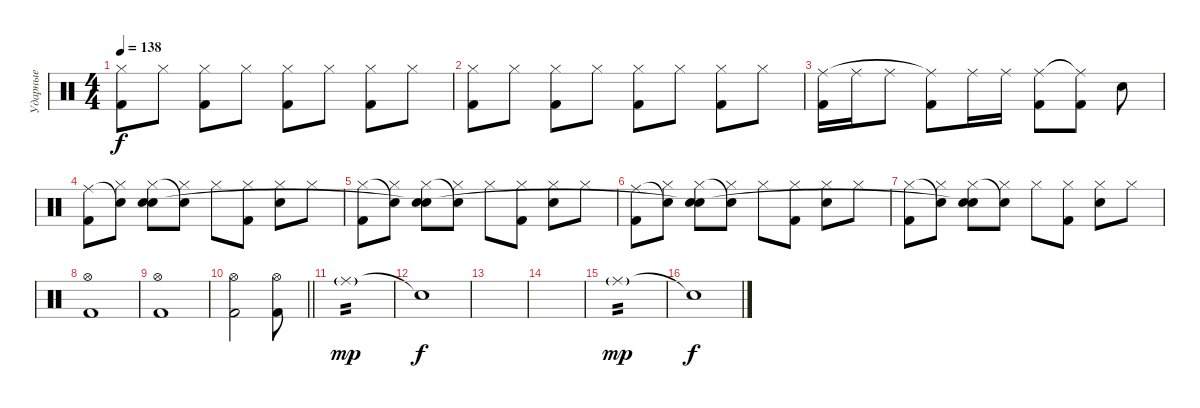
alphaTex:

\track ("Ударные" "Ударные") {instrument percussion}
\staff {score}
\articulation defaults
\ts (4 4)
\tempo 138
\clef neutral
\ks c
("Kick (hit) 2" "Hi-Hat (closed)").8{dy f} "Hi-Hat (closed)".8 ("Kick (hit) 2" "Hi-Hat (closed)").8 "Hi-Hat (closed)".8 ("Kick (hit) 2" "Hi-Hat (closed)").8 "Hi-Hat (closed)".8 ("Kick (hit) 2" "Hi-Hat (closed)").8 "Hi-Hat (closed)".8 |
("Kick (hit) 2" "Hi-Hat (closed)").8 "Hi-Hat (closed)".8 ("Kick (hit) 2" "Hi-Hat (closed)").8 "Hi-Hat (closed)".8 ("Kick (hit) 2" "Hi-Hat (closed)").8 "Hi-Hat (closed)".8 ("Kick (hit) 2" "Hi-Hat (closed)").8 "Hi-Hat (closed)".8 |
("Kick (hit) 2" "Ride (middle)").16 "Ride (middle)".16 "Ride (middle)".8 ("Kick (hit) 2" "Ride (middle)"{t}).8 "Ride (middle)".16 "Ride (middle)".16 ("Kick (hit) 2" "Ride (middle)").8 ("Kick (hit) 2" "Ride (middle)"{t}).8 "Snare (hit) 2".8 |
("Kick (hit) 2" "Ride (middle)").8 ("Hi-Hat (closed)" "Snare (hit)"{t}).8 ("Snare (hit) 2" "Hi-Hat (closed)" "Snare (hit)").8 ("Hi-Hat (closed)" "Snare (hit)"{t}).8 "Hi-Hat (closed)".8 ("Kick (hit) 2" "Hi-Hat (closed)").8 ("Snare (hit) 2" "Hi-Hat (closed)").8 "Hi-Hat (closed)".8 |
("Kick (hit) 2" "Hi-Hat (closed)").8 ("Hi-Hat (closed)" "Snare (hit)"{t}).8 ("Snare (hit) 2" "Hi-Hat (closed)" "Snare (hit)"{t}).8 ("Hi-Hat (closed)" "Snare (hit)"{t}).8 "Hi-Hat (closed)".8 ("Kick (hit) 2" "Hi-Hat (closed)").8 ("Snare (hit) 2" "Hi-Hat (closed)").8 "Hi-Hat (closed)".8 |
("Kick (hit) 2" "Ride (middle)").8 ("Hi-Hat (closed)" "Snare (hit)"{t}).8 ("Snare (hit) 2" "Hi-Hat (closed)" "Snare (hit)"{t}).8 ("Hi-Hat (closed)" "Snare (hit)"{t}).8 "Hi-Hat (closed)".8 ("Kick (hit) 2" "Hi-Hat (closed)").8 ("Snare (hit) 2" "Hi-Hat (closed)").8 "Hi-Hat (closed)".8 |
("Kick (hit) 2" "Hi-Hat (closed)").8 ("Hi-Hat (closed)" "Snare (hit)"{t}).8 ("Snare (hit) 2" "Hi-Hat (closed)" "Snare (hit)"{t}).8 ("Hi-Hat (closed)" "Snare (hit)"{t}).8 "Hi-Hat (closed)".8 ("Kick (hit) 2" "Hi-Hat (closed)").8 ("Snare (hit) 2" "Hi-Hat (closed)").8 "Hi-Hat (closed)".8 |
("Kick (hit) 2" "Hi-Hat (open)").1 |
("Kick (hit) 2" "Hi-Hat (open)").1 |
\barLineRight lightlight
("Kick (hit) 2" "Hi-Hat (open)").2 ("Kick (hit) 2" "Hi-Hat (open)").8 |
"Ride (middle)"{g}.1{tp 2 dy mp volume 14} |
"Snare (hit)"{t}.1{dy f} |
|
|
"Ride (middle)"{g}.1{tp 2 dy mp volume 14} |
"Snare (hit)"{t}.1{dy f}
